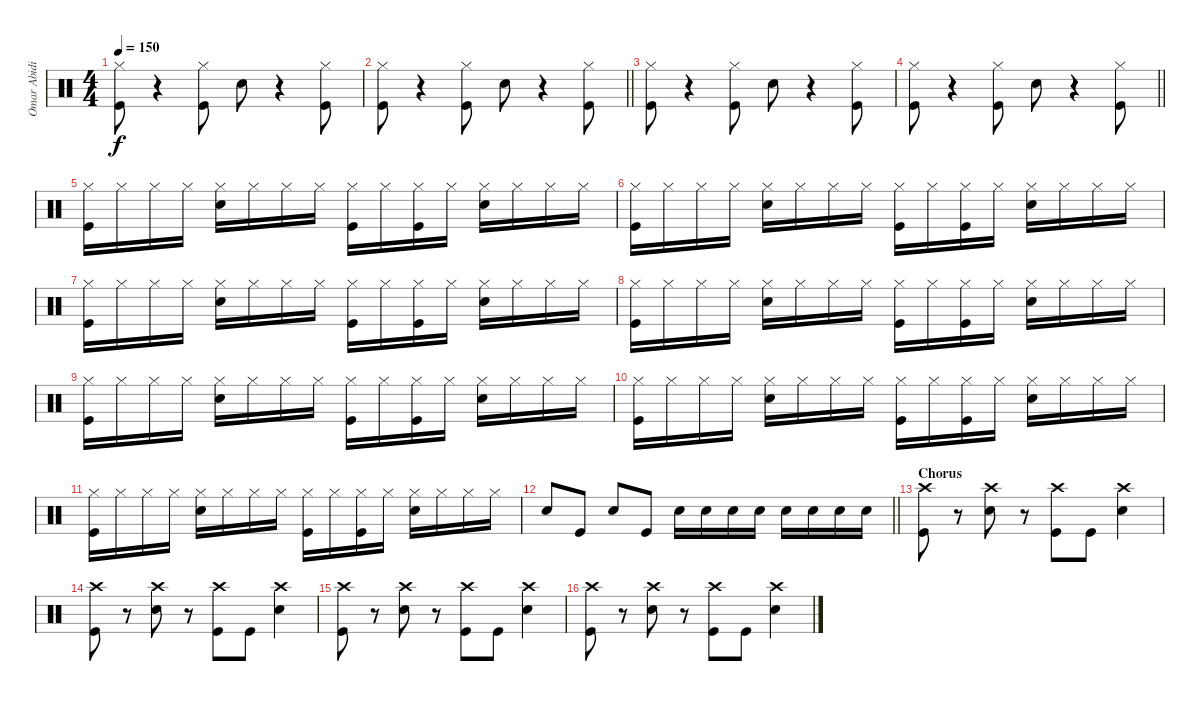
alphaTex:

\track ("Omar Abidi" "Omar Abidi") {instrument percussion}
\staff {score}
\articulation defaults
\ts (4 4)
\tempo 150
\clef neutral
\ks c
("Hi-Hat (closed)" "Kick (hit)").8{dy f} r.4 ("Hi-Hat (closed)" "Kick (hit)").8 "Snare (hit) 2".8 r.4 ("Hi-Hat (closed)" "Kick (hit)").8 |
\barLineRight lightlight
("Hi-Hat (closed)" "Kick (hit)").8 r.4 ("Hi-Hat (closed)" "Kick (hit)").8 "Snare (hit) 2".8 r.4 ("Hi-Hat (closed)" "Kick (hit)").8 |
("Hi-Hat (closed)" "Kick (hit)").8 r.4 ("Hi-Hat (closed)" "Kick (hit)").8 "Snare (hit) 2".8 r.4 ("Hi-Hat (closed)" "Kick (hit)").8 |
\barLineRight lightlight
("Hi-Hat (closed)" "Kick (hit)").8 r.4 ("Hi-Hat (closed)" "Kick (hit)").8 "Snare (hit) 2".8 r.4 ("Hi-Hat (closed)" "Kick (hit)").8 |
("Hi-Hat (closed)" "Kick (hit)").16 "Hi-Hat (closed)".16 "Hi-Hat (closed)".16 "Hi-Hat (closed)".16 ("Hi-Hat (closed)" "Snare (hit) 2").16 "Hi-Hat (closed)".16 "Hi-Hat (closed)".16 "Hi-Hat (closed)".16 ("Hi-Hat (closed)" "Kick (hit)").16 "Hi-Hat (closed)".16 ("Hi-Hat (closed)" "Kick (hit)").16 "Hi-Hat (closed)".16 ("Hi-Hat (closed)" "Snare (hit) 2").16 "Hi-Hat (closed)".16 "Hi-Hat (closed)".16 "Hi-Hat (closed)".16 |
("Hi-Hat (closed)" "Kick (hit)").16 "Hi-Hat (closed)".16 "Hi-Hat (closed)".16 "Hi-Hat (closed)".16 ("Hi-Hat (closed)" "Snare (hit) 2").16 "Hi-Hat (closed)".16 "Hi-Hat (closed)".16 "Hi-Hat (closed)".16 ("Hi-Hat (closed)" "Kick (hit)").16 "Hi-Hat (closed)".16 ("Hi-Hat (closed)" "Kick (hit)").16 "Hi-Hat (closed)".16 ("Hi-Hat (closed)" "Snare (hit) 2").16 "Hi-Hat (closed)".16 "Hi-Hat (closed)".16 "Hi-Hat (closed)".16 |
("Hi-Hat (closed)" "Kick (hit)").16 "Hi-Hat (closed)".16 "Hi-Hat (closed)".16 "Hi-Hat (closed)".16 ("Hi-Hat (closed)" "Snare (hit) 2").16 "Hi-Hat (closed)".16 "Hi-Hat (closed)".16 "Hi-Hat (closed)".16 ("Hi-Hat (closed)" "Kick (hit)").16 "Hi-Hat (closed)".16 ("Hi-Hat (closed)" "Kick (hit)").16 "Hi-Hat (closed)".16 ("Hi-Hat (closed)" "Snare (hit) 2").16 "Hi-Hat (closed)".16 "Hi-Hat (closed)".16 "Hi-Hat (closed)".16 |
("Hi-Hat (closed)" "Kick (hit)").16 "Hi-Hat (closed)".16 "Hi-Hat (closed)".16 "Hi-Hat (closed)".16 ("Hi-Hat (closed)" "Snare (hit) 2").16 "Hi-Hat (closed)".16 "Hi-Hat (closed)".16 "Hi-Hat (closed)".16 ("Hi-Hat (closed)" "Kick (hit)").16 "Hi-Hat (closed)".16 ("Hi-Hat (closed)" "Kick (hit)").16 "Hi-Hat (closed)".16 ("Hi-Hat (closed)" "Snare (hit) 2").16 "Hi-Hat (closed)".16 "Hi-Hat (closed)".16 "Hi-Hat (closed)".16 |
("Hi-Hat (closed)" "Kick (hit)").16 "Hi-Hat (closed)".16 "Hi-Hat (closed)".16 "Hi-Hat (closed)".16 ("Hi-Hat (closed)" "Snare (hit) 2").16 "Hi-Hat (closed)".16 "Hi-Hat (closed)".16 "Hi-Hat (closed)".16 ("Hi-Hat (closed)" "Kick (hit)").16 "Hi-Hat (closed)".16 ("Hi-Hat (closed)" "Kick (hit)").16 "Hi-Hat (closed)".16 ("Hi-Hat (closed)" "Snare (hit) 2").16 "Hi-Hat (closed)".16 "Hi-Hat (closed)".16 "Hi-Hat (closed)".16 |
("Hi-Hat (closed)" "Kick (hit)").16 "Hi-Hat (closed)".16 "Hi-Hat (closed)".16 "Hi-Hat (closed)".16 ("Hi-Hat (closed)" "Snare (hit) 2").16 "Hi-Hat (closed)".16 "Hi-Hat (closed)".16 "Hi-Hat (closed)".16 ("Hi-Hat (closed)" "Kick (hit)").16 "Hi-Hat (closed)".16 ("Hi-Hat (closed)" "Kick (hit)").16 "Hi-Hat (closed)".16 ("Hi-Hat (closed)" "Snare (hit) 2").16 "Hi-Hat (closed)".16 "Hi-Hat (closed)".16 "Hi-Hat (closed)".16 |
("Hi-Hat (closed)" "Kick (hit)").16 "Hi-Hat (closed)".16 "Hi-Hat (closed)".16 "Hi-Hat (closed)".16 ("Hi-Hat (closed)" "Snare (hit) 2").16 "Hi-Hat (closed)".16 "Hi-Hat (closed)".16 "Hi-Hat (closed)".16 ("Hi-Hat (closed)" "Kick (hit)").16 "Hi-Hat (closed)".16 ("Hi-Hat (closed)" "Kick (hit)").16 "Hi-Hat (closed)".16 ("Hi-Hat (closed)" "Snare (hit) 2").16 "Hi-Hat (closed)".16 "Hi-Hat (closed)".16 "Hi-Hat (closed)".16 |
\barLineRight lightlight "Snare (hit) 2".8 "Kick (hit)".8 "Snare (hit) 2".8 "Kick (hit)".8 "Snare (hit) 2".16 "Snare (hit) 2".16 "Snare (hit) 2".16 "Snare (hit) 2".16 "Snare (hit) 2".16 "Snare (hit) 2".16 "Snare (hit) 2".16 "Snare (hit) 2".16
|
\section ("" "Chorus")
("Crash high (hit)" "Kick (hit)").8 r.8 ("Crash high (hit)" "Snare (hit) 2").8 r.8 ("Crash high (hit)" "Kick (hit)").8 "Kick (hit)".8 ("Crash high (hit)" "Snare (hit) 2").4 |
("Crash high (hit)" "Kick (hit)").8 r.8 ("Crash high (hit)" "Snare (hit) 2").8 r.8 ("Crash high (hit)" "Kick (hit)").8 "Kick (hit)".8 ("Crash high (hit)" "Snare (hit) 2").4 |
("Crash high (hit)" "Kick (hit)").8 r.8 ("Crash high (hit)" "Snare (hit) 2").8 r.8 ("Crash high (hit)" "Kick (hit)").8 "Kick (hit)".8 ("Crash high (hit)" "Snare (hit) 2").4 |
("Crash high (hit)" "Kick (hit)").8 r.8 ("Crash high (hit)" "Snare (hit) 2").8 r.8 ("Crash high (hit)" "Kick (hit)").8 "Kick (hit)".8 ("Crash high (hit)" "Snare (hit) 2").4
